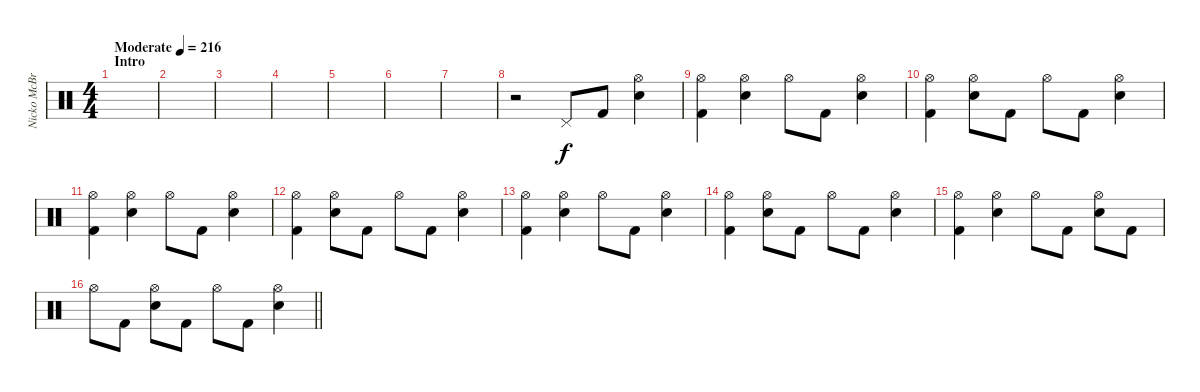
\track ("Nicko McBrain" "Nicko McBr") {instrument percussion}
\staff {score}
\articulation defaults
\ts (4 4)
\section ("" "Intro")
\tempo (216 "Moderate")
\clef neutral
\ks c
|
|
|
|
|
|
|
r.2 "Pedal Hi-Hat (hit)".8 "Kick (hit) 2".8 ("Hi-Hat (open)" "Snare (hit) 2").4 |
("Hi-Hat (open)" "Kick (hit) 2").4 ("Hi-Hat (open)" "Snare (hit) 2").4 "Hi-Hat (open)".8 "Kick (hit) 2".8 ("Hi-Hat (open)" "Snare (hit) 2").4 |
("Hi-Hat (open)" "Kick (hit) 2").4 ("Hi-Hat (open)" "Snare (hit) 2").8 "Kick (hit) 2".8 "Hi-Hat (open)".8 "Kick (hit) 2".8 ("Hi-Hat (open)" "Snare (hit) 2").4 |
("Hi-Hat (open)" "Kick (hit) 2").4 ("Hi-Hat (open)" "Snare (hit) 2").4 "Hi-Hat (open)".8 "Kick (hit) 2".8 ("Hi-Hat (open)" "Snare (hit) 2").4 |
("Hi-Hat (open)" "Kick (hit) 2").4 ("Hi-Hat (open)" "Snare (hit) 2").8 "Kick (hit) 2".8 "Hi-Hat (open)".8 "Kick (hit) 2".8 ("Hi-Hat (open)" "Snare (hit) 2").4 |
("Hi-Hat (open)" "Kick (hit) 2").4 ("Hi-Hat (open)" "Snare (hit) 2").4 "Hi-Hat (open)".8 "Kick (hit) 2".8 ("Hi-Hat (open)" "Snare (hit) 2").4 |
("Hi-Hat (open)" "Kick (hit) 2").4 ("Hi-Hat (open)" "Snare (hit) 2").8 "Kick (hit) 2".8 "Hi-Hat (open)".8 "Kick (hit) 2".8 ("Hi-Hat (open)" "Snare (hit) 2").4 |
("Hi-Hat (open)" "Kick (hit) 2").4 ("Hi-Hat (open)" "Snare (hit) 2").4 "Hi-Hat (open)".8 "Kick (hit) 2".8 ("Hi-Hat (open)" "Snare (hit) 2").8 "Kick (hit) 2".8 |
\barLineRight lightlight "Hi-Hat (open)".8 "Kick (hit) 2".8
("Hi-Hat (open)" "Snare (hit) 2").8 "Kick (hit) 2".8 "Hi-Hat (open)".8 "Kick (hit) 2".8 ("Hi-Hat (open)" "Snare (hit) 2").4
